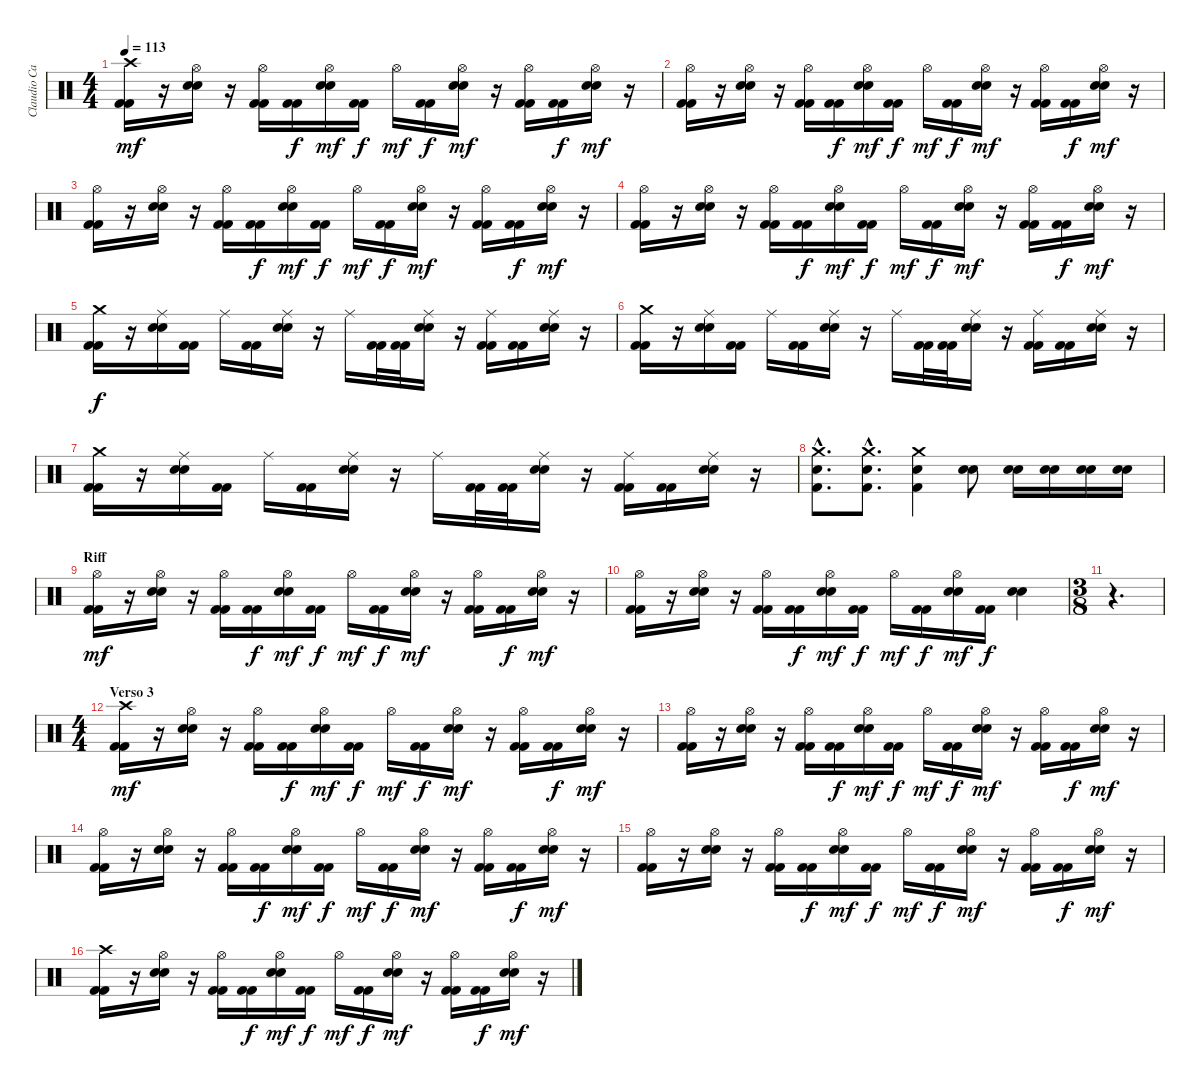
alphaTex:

\track ("Claudio Cardaci (bateria)" "Claudio Ca") {instrument percussion}
\staff {score}
\articulation defaults
\ts (4 4)
\tempo 113
\clef neutral
\ks c
("Crash high (hit)" "Kick (hit) 2" "Kick (hit) 2").16{dy mf} r.16 ("Hi-Hat (open)" "Snare (hit) 2" "Snare (hit) 2").16 r.16 ("Hi-Hat (open)" "Kick (hit) 2" "Kick (hit) 2").16 ("Kick (hit) 2" "Kick (hit) 2").16{dy f} ("Hi-Hat (open)" "Snare (hit) 2" "Snare (hit) 2").16{dy mf} ("Kick (hit) 2" "Kick (hit) 2").16{dy f} "Hi-Hat (open)".16{dy mf} ("Kick (hit) 2" "Kick (hit) 2").16{dy f} ("Hi-Hat (open)" "Snare (hit) 2" "Snare (hit) 2").16{dy mf} r.16 ("Hi-Hat (open)" "Kick (hit) 2" "Kick (hit) 2").16 ("Kick (hit) 2" "Kick (hit) 2").16{dy f} ("Hi-Hat (open)" "Snare (hit) 2" "Snare (hit) 2").16{dy mf} r.16 |
("Hi-Hat (open)" "Kick (hit) 2" "Kick (hit) 2").16 r.16 ("Hi-Hat (open)" "Snare (hit) 2" "Snare (hit) 2").16 r.16 ("Hi-Hat (open)" "Kick (hit) 2" "Kick (hit) 2").16 ("Kick (hit) 2" "Kick (hit) 2").16{dy f} ("Hi-Hat (open)" "Snare (hit) 2" "Snare (hit) 2").16{dy mf} ("Kick (hit) 2" "Kick (hit) 2").16{dy f} "Hi-Hat (open)".16{dy mf} ("Kick (hit) 2" "Kick (hit) 2").16{dy f} ("Hi-Hat (open)" "Snare (hit) 2" "Snare (hit) 2").16{dy mf} r.16 ("Hi-Hat (open)" "Kick (hit) 2" "Kick (hit) 2").16 ("Kick (hit) 2" "Kick (hit) 2").16{dy f} ("Hi-Hat (open)" "Snare (hit) 2" "Snare (hit) 2").16{dy mf} r.16 |
("Hi-Hat (open)" "Kick (hit) 2" "Kick (hit) 2").16 r.16 ("Hi-Hat (open)" "Snare (hit) 2" "Snare (hit) 2").16 r.16 ("Hi-Hat (open)" "Kick (hit) 2" "Kick (hit) 2").16 ("Kick (hit) 2" "Kick (hit) 2").16{dy f} ("Hi-Hat (open)" "Snare (hit) 2" "Snare (hit) 2").16{dy mf} ("Kick (hit) 2" "Kick (hit) 2").16{dy f} "Hi-Hat (open)".16{dy mf} ("Kick (hit) 2" "Kick (hit) 2").16{dy f} ("Hi-Hat (open)" "Snare (hit) 2" "Snare (hit) 2").16{dy mf} r.16 ("Hi-Hat (open)" "Kick (hit) 2" "Kick (hit) 2").16 ("Kick (hit) 2" "Kick (hit) 2").16{dy f} ("Hi-Hat (open)" "Snare (hit) 2" "Snare (hit) 2").16{dy mf} r.16 |
("Hi-Hat (open)" "Kick (hit) 2" "Kick (hit) 2").16 r.16 ("Hi-Hat (open)" "Snare (hit) 2" "Snare (hit) 2").16 r.16 ("Hi-Hat (open)" "Kick (hit) 2" "Kick (hit) 2").16 ("Kick (hit) 2" "Kick (hit) 2").16{dy f} ("Hi-Hat (open)" "Snare (hit) 2" "Snare (hit) 2").16{dy mf} ("Kick (hit) 2" "Kick (hit) 2").16{dy f} "Hi-Hat (open)".16{dy mf} ("Kick (hit) 2" "Kick (hit) 2").16{dy f} ("Hi-Hat (open)" "Snare (hit) 2" "Snare (hit) 2").16{dy mf} r.16 ("Hi-Hat (open)" "Kick (hit) 2" "Kick (hit) 2").16 ("Kick (hit) 2" "Kick (hit) 2").16{dy f} ("Hi-Hat (open)" "Snare (hit) 2" "Snare (hit) 2").16{dy mf} r.16 |
("Crash medium (hit)" "Kick (hit) 2" "Kick (hit) 2").16{dy f} r.16 ("Ride (middle)" "Snare (hit) 2" "Snare (hit) 2").16 ("Kick (hit) 2" "Kick (hit) 2").16 "Ride (middle)".16 ("Kick (hit) 2" "Kick (hit) 2").16 ("Ride (middle)" "Snare (hit) 2" "Snare (hit) 2").16 r.16 "Ride (middle)".16 ("Kick (hit) 2" "Kick (hit) 2").32 ("Kick (hit) 2" "Kick (hit) 2").32 ("Ride (middle)" "Snare (hit) 2" "Snare (hit) 2").16 r.16 ("Ride (middle)" "Kick (hit) 2" "Kick (hit) 2").16 ("Kick (hit) 2" "Kick (hit) 2").16 ("Ride (middle)" "Snare (hit) 2" "Snare (hit) 2").16 r.16 |
("Crash medium (hit)" "Kick (hit) 2" "Kick (hit) 2").16 r.16 ("Ride (middle)" "Snare (hit) 2" "Snare (hit) 2").16 ("Kick (hit) 2" "Kick (hit) 2").16 "Ride (middle)".16 ("Kick (hit) 2" "Kick (hit) 2").16 ("Ride (middle)" "Snare (hit) 2" "Snare (hit) 2").16 r.16 "Ride (middle)".16 ("Kick (hit) 2" "Kick (hit) 2").32 ("Kick (hit) 2" "Kick (hit) 2").32 ("Ride (middle)" "Snare (hit) 2" "Snare (hit) 2").16 r.16 ("Ride (middle)" "Kick (hit) 2" "Kick (hit) 2").16 ("Kick (hit) 2" "Kick (hit) 2").16 ("Ride (middle)" "Snare (hit) 2" "Snare (hit) 2").16 r.16 |
("Crash medium (hit)" "Kick (hit) 2" "Kick (hit) 2").16 r.16 ("Ride (middle)" "Snare (hit) 2" "Snare (hit) 2").16 ("Kick (hit) 2" "Kick (hit) 2").16 "Ride (middle)".16 ("Kick (hit) 2" "Kick (hit) 2").16 ("Ride (middle)" "Snare (hit) 2" "Snare (hit) 2").16 r.16 "Ride (middle)".16 ("Kick (hit) 2" "Kick (hit) 2").32 ("Kick (hit) 2" "Kick (hit) 2").32 ("Ride (middle)" "Snare (hit) 2" "Snare (hit) 2").16 r.16 ("Ride (middle)" "Kick (hit) 2" "Kick (hit) 2").16 ("Kick (hit) 2" "Kick (hit) 2").16 ("Ride (middle)" "Snare (hit) 2" "Snare (hit) 2").16 r.16 |
("Crash medium (hit)"{hac} "Snare (hit) 2"{hac} "Kick (hit) 2"{hac}).8{d} ("Crash medium (hit)"{hac} "Snare (hit) 2"{hac} "Kick (hit) 2"{hac}).8{d} ("Crash medium (hit)" "Snare (hit) 2" "Kick (hit) 2").4 ("Electric Snare (hit)" "Electric Snare (hit)").8 ("Snare (hit) 2" "Snare (hit) 2").16 ("Snare (hit) 2" "Snare (hit) 2").16 ("Snare (hit) 2" "Snare (hit) 2").16 ("Snare (hit) 2" "Snare (hit) 2").16 |
\section ("" "Riff")
("Hi-Hat (open)" "Kick (hit) 2" "Kick (hit) 2").16{dy mf} r.16 ("Hi-Hat (open)" "Snare (hit) 2" "Snare (hit) 2").16 r.16 ("Hi-Hat (open)" "Kick (hit) 2" "Kick (hit) 2").16 ("Kick (hit) 2" "Kick (hit) 2").16{dy f} ("Hi-Hat (open)" "Snare (hit) 2" "Snare (hit) 2").16{dy mf} ("Kick (hit) 2" "Kick (hit) 2").16{dy f} "Hi-Hat (open)".16{dy mf} ("Kick (hit) 2" "Kick (hit) 2").16{dy f} ("Hi-Hat (open)" "Snare (hit) 2" "Snare (hit) 2").16{dy mf} r.16 ("Hi-Hat (open)" "Kick (hit) 2" "Kick (hit) 2").16 ("Kick (hit) 2" "Kick (hit) 2").16{dy f} ("Hi-Hat (open)" "Snare (hit) 2" "Snare (hit) 2").16{dy mf} r.16 |
("Hi-Hat (open)" "Kick (hit) 2" "Kick (hit) 2").16 r.16 ("Hi-Hat (open)" "Snare (hit) 2" "Snare (hit) 2").16 r.16 ("Hi-Hat (open)" "Kick (hit) 2" "Kick (hit) 2").16 ("Kick (hit) 2" "Kick (hit) 2").16{dy f} ("Hi-Hat (open)" "Snare (hit) 2" "Snare (hit) 2").16{dy mf} ("Kick (hit) 2" "Kick (hit) 2").16{dy f} "Hi-Hat (open)".16{dy mf} ("Kick (hit) 2" "Kick (hit) 2").16{dy f} ("Hi-Hat (open)" "Snare (hit) 2" "Snare (hit) 2").16{dy mf} ("Kick (hit) 2" "Kick (hit) 2").16{dy f} ("Snare (hit) 2" "Snare (hit) 2").4 |
\ts (3 8)
r.4{d} |
\ts (4 4)
\section ("" "Verso 3")
("Crash high (hit)" "Kick (hit) 2" "Kick (hit) 2").16{dy mf} r.16 ("Hi-Hat (open)" "Snare (hit) 2" "Snare (hit) 2").16 r.16 ("Hi-Hat (open)" "Kick (hit) 2" "Kick (hit) 2").16 ("Kick (hit) 2" "Kick (hit) 2").16{dy f} ("Hi-Hat (open)" "Snare (hit) 2" "Snare (hit) 2").16{dy mf} ("Kick (hit) 2" "Kick (hit) 2").16{dy f} "Hi-Hat (open)".16{dy mf} ("Kick (hit) 2" "Kick (hit) 2").16{dy f} ("Hi-Hat (open)" "Snare (hit) 2" "Snare (hit) 2").16{dy mf} r.16 ("Hi-Hat (open)" "Kick (hit) 2" "Kick (hit) 2").16 ("Kick (hit) 2" "Kick (hit) 2").16{dy f} ("Hi-Hat (open)" "Snare (hit) 2" "Snare (hit) 2").16{dy mf} r.16 |
("Hi-Hat (open)" "Kick (hit) 2" "Kick (hit) 2").16 r.16 ("Hi-Hat (open)" "Snare (hit) 2" "Snare (hit) 2").16 r.16 ("Hi-Hat (open)" "Kick (hit) 2" "Kick (hit) 2").16 ("Kick (hit) 2" "Kick (hit) 2").16{dy f} ("Hi-Hat (open)" "Snare (hit) 2" "Snare (hit) 2").16{dy mf} ("Kick (hit) 2" "Kick (hit) 2").16{dy f} "Hi-Hat (open)".16{dy mf} ("Kick (hit) 2" "Kick (hit) 2").16{dy f} ("Hi-Hat (open)" "Snare (hit) 2" "Snare (hit) 2").16{dy mf} r.16 ("Hi-Hat (open)" "Kick (hit) 2" "Kick (hit) 2").16 ("Kick (hit) 2" "Kick (hit) 2").16{dy f} ("Hi-Hat (open)" "Snare (hit) 2" "Snare (hit) 2").16{dy mf} r.16 |
("Hi-Hat (open)" "Kick (hit) 2" "Kick (hit) 2").16 r.16 ("Hi-Hat (open)" "Snare (hit) 2" "Snare (hit) 2").16 r.16 ("Hi-Hat (open)" "Kick (hit) 2" "Kick (hit) 2").16 ("Kick (hit) 2" "Kick (hit) 2").16{dy f} ("Hi-Hat (open)" "Snare (hit) 2" "Snare (hit) 2").16{dy mf} ("Kick (hit) 2" "Kick (hit) 2").16{dy f} "Hi-Hat (open)".16{dy mf} ("Kick (hit) 2" "Kick (hit) 2").16{dy f} ("Hi-Hat (open)" "Snare (hit) 2" "Snare (hit) 2").16{dy mf} r.16 ("Hi-Hat (open)" "Kick (hit) 2" "Kick (hit) 2").16 ("Kick (hit) 2" "Kick (hit) 2").16{dy f} ("Hi-Hat (open)" "Snare (hit) 2" "Snare (hit) 2").16{dy mf} r.16 |
("Hi-Hat (open)" "Kick (hit) 2" "Kick (hit) 2").16 r.16 ("Hi-Hat (open)" "Snare (hit) 2" "Snare (hit) 2").16 r.16 ("Hi-Hat (open)" "Kick (hit) 2" "Kick (hit) 2").16 ("Kick (hit) 2" "Kick (hit) 2").16{dy f} ("Hi-Hat (open)" "Snare (hit) 2" "Snare (hit) 2").16{dy mf} ("Kick (hit) 2" "Kick (hit) 2").16{dy f} "Hi-Hat (open)".16{dy mf} ("Kick (hit) 2" "Kick (hit) 2").16{dy f} ("Hi-Hat (open)" "Snare (hit) 2" "Snare (hit) 2").16{dy mf} r.16 ("Hi-Hat (open)" "Kick (hit) 2" "Kick (hit) 2").16 ("Kick (hit) 2" "Kick (hit) 2").16{dy f} ("Hi-Hat (open)" "Snare (hit) 2" "Snare (hit) 2").16{dy mf} r.16 |
("Crash high (hit)" "Kick (hit) 2" "Kick (hit) 2").16 r.16 ("Hi-Hat (open)" "Snare (hit) 2" "Snare (hit) 2").16 r.16 ("Hi-Hat (open)" "Kick (hit) 2" "Kick (hit) 2").16 ("Kick (hit) 2" "Kick (hit) 2").16{dy f} ("Hi-Hat (open)" "Snare (hit) 2" "Snare (hit) 2").16{dy mf} ("Kick (hit) 2" "Kick (hit) 2").16{dy f} "Hi-Hat (open)".16{dy mf} ("Kick (hit) 2" "Kick (hit) 2").16{dy f} ("Hi-Hat (open)" "Snare (hit) 2" "Snare (hit) 2").16{dy mf} r.16 ("Hi-Hat (open)" "Kick (hit) 2" "Kick (hit) 2").16 ("Kick (hit) 2" "Kick (hit) 2").16{dy f} ("Hi-Hat (open)" "Snare (hit) 2" "Snare (hit) 2").16{dy mf} r.16
